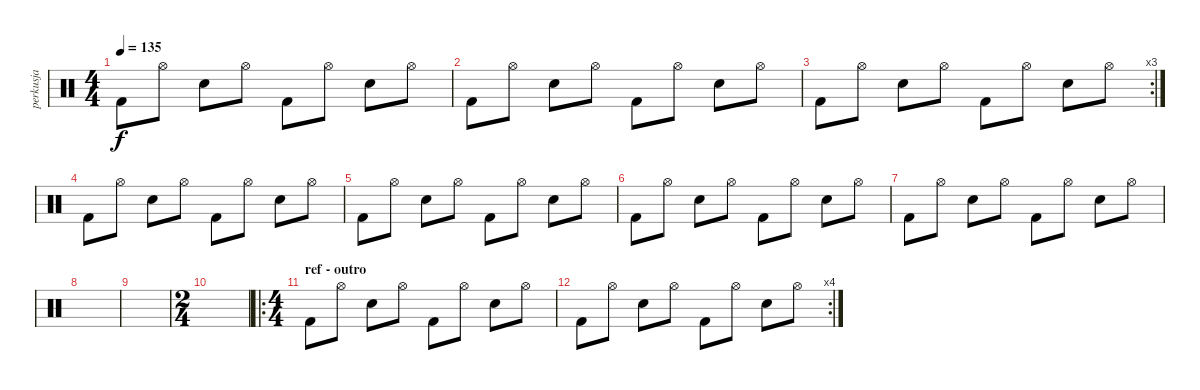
\track ("perkusja" "perkusja") {instrument percussion}
\staff {score}
\articulation defaults
\ts (4 4)
\tempo 135
\clef neutral
\ks c "Kick (hit) 2".8{dy f} "Hi-Hat (open)".8 "Electric Snare (hit)".8 "Hi-Hat (open)".8 "Kick (hit) 2".8 "Hi-Hat (open)".8 "Electric Snare (hit)".8 "Hi-Hat (open)".8
|
"Kick (hit) 2".8 "Hi-Hat (open)".8 "Electric Snare (hit)".8 "Hi-Hat (open)".8 "Kick (hit) 2".8 "Hi-Hat (open)".8 "Electric Snare (hit)".8 "Hi-Hat (open)".8 |
\rc 3 "Kick (hit) 2".8 "Hi-Hat (open)".8 "Electric Snare (hit)".8 "Hi-Hat (open)".8 "Kick (hit) 2".8 "Hi-Hat (open)".8 "Electric Snare (hit)".8 "Hi-Hat (open)".8
|
"Kick (hit) 2".8 "Hi-Hat (open)".8 "Electric Snare (hit)".8 "Hi-Hat (open)".8 "Kick (hit) 2".8 "Hi-Hat (open)".8 "Electric Snare (hit)".8 "Hi-Hat (open)".8 |
"Kick (hit) 2".8 "Hi-Hat (open)".8 "Electric Snare (hit)".8 "Hi-Hat (open)".8 "Kick (hit) 2".8 "Hi-Hat (open)".8 "Electric Snare (hit)".8 "Hi-Hat (open)".8 |
"Kick (hit) 2".8 "Hi-Hat (open)".8 "Electric Snare (hit)".8 "Hi-Hat (open)".8 "Kick (hit) 2".8 "Hi-Hat (open)".8 "Electric Snare (hit)".8 "Hi-Hat (open)".8 |
"Kick (hit) 2".8 "Hi-Hat (open)".8 "Electric Snare (hit)".8 "Hi-Hat (open)".8 "Kick (hit) 2".8 "Hi-Hat (open)".8 "Electric Snare (hit)".8 "Hi-Hat (open)".8 |
|
|
\ts (2 4)
|
\ro
\ts (4 4)
\section ("" "ref - outro")
"Kick (hit) 2".8 "Hi-Hat (open)".8 "Electric Snare (hit)".8 "Hi-Hat (open)".8 "Kick (hit) 2".8 "Hi-Hat (open)".8 "Electric Snare (hit)".8 "Hi-Hat (open)".8 |
\rc 4 "Kick (hit) 2".8 "Hi-Hat (open)".8 "Electric Snare (hit)".8 "Hi-Hat (open)".8 "Kick (hit) 2".8 "Hi-Hat (open)".8 "Electric Snare (hit)".8 "Hi-Hat (open)".8
